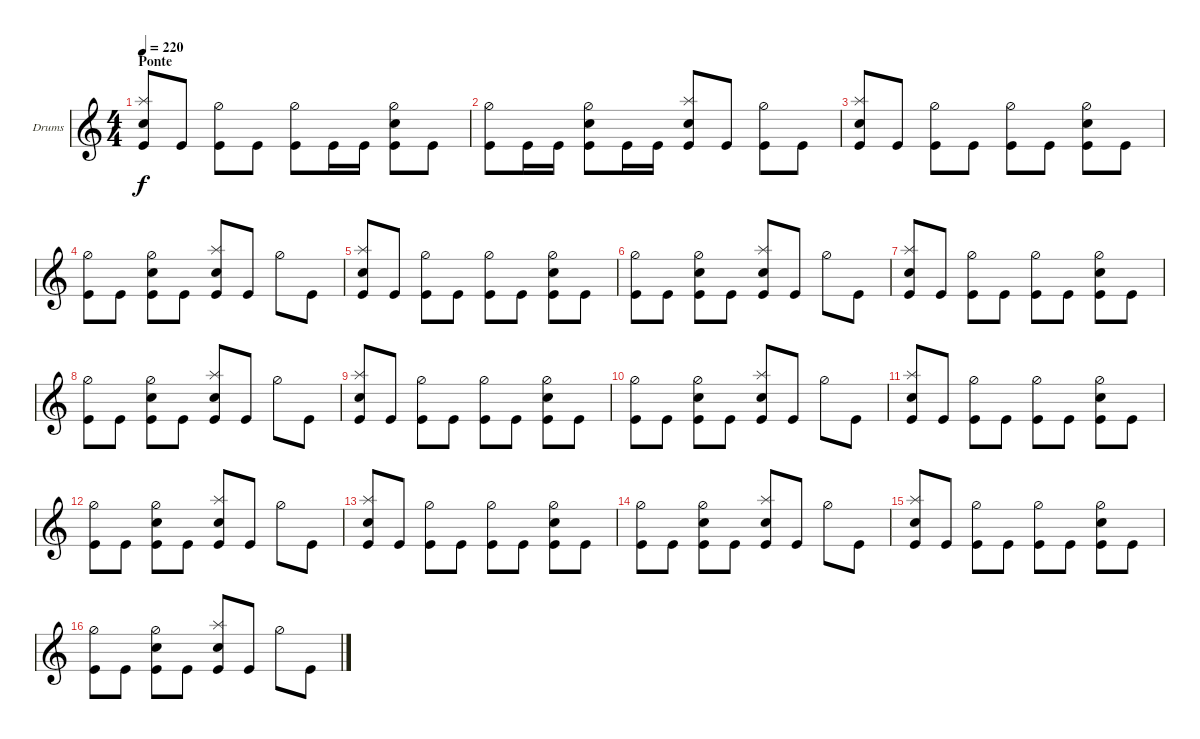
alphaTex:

\defaultSystemsLayout 4
\bracketExtendMode groupsimilarinstruments
\firstSystemTrackNameOrientation horizontal
\otherSystemsTrackNameOrientation horizontal
\track ("Drumkit" "Drums") {instrument percussion}
\staff {score}
\articulation defaults
\ts (4 4)
\section ("" "Ponte")
\tempo 220
\clef g2
\ks c
("Snare (hit) 2" "Splash (hit)" "Kick (hit)").8{dy f} "Kick (hit)".8 ("Hi-Hat (half)" "Kick (hit)").8 "Kick (hit)".8 ("Hi-Hat (half)" "Kick (hit)").8 "Kick (hit)".16 "Kick (hit)".16 ("Snare (hit) 2" "Hi-Hat (half)" "Kick (hit)").8 "Kick (hit)".8 |
("Hi-Hat (half)" "Kick (hit)").8 "Kick (hit)".16 "Kick (hit)".16 ("Snare (hit) 2" "Hi-Hat (half)" "Kick (hit)").8 "Kick (hit)".16 "Kick (hit)".16 ("Snare (hit) 2" "Splash (hit)" "Kick (hit)").8 "Kick (hit)".8 ("Hi-Hat (half)" "Kick (hit)").8 "Kick (hit)".8 |
("Snare (hit) 2" "Splash (hit)" "Kick (hit)").8 "Kick (hit)".8 ("Hi-Hat (half)" "Kick (hit)").8 "Kick (hit)".8 ("Hi-Hat (half)" "Kick (hit)").8 "Kick (hit)".8 ("Snare (hit) 2" "Hi-Hat (half)" "Kick (hit)").8 "Kick (hit)".8 |
("Hi-Hat (half)" "Kick (hit)").8 "Kick (hit)".8 ("Snare (hit) 2" "Hi-Hat (half)" "Kick (hit)").8 "Kick (hit)".8 ("Snare (hit) 2" "Splash (hit)" "Kick (hit)").8 "Kick (hit)".8 "Hi-Hat (half)".8 "Kick (hit)".8 |
("Snare (hit) 2" "Splash (hit)" "Kick (hit)").8 "Kick (hit)".8 ("Hi-Hat (half)" "Kick (hit)").8 "Kick (hit)".8 ("Hi-Hat (half)" "Kick (hit)").8 "Kick (hit)".8 ("Snare (hit) 2" "Hi-Hat (half)" "Kick (hit)").8 "Kick (hit)".8 |
("Hi-Hat (half)" "Kick (hit)").8 "Kick (hit)".8 ("Snare (hit) 2" "Hi-Hat (half)" "Kick (hit)").8 "Kick (hit)".8 ("Snare (hit) 2" "Splash (hit)" "Kick (hit)").8 "Kick (hit)".8 "Hi-Hat (half)".8 "Kick (hit)".8 |
("Snare (hit) 2" "Splash (hit)" "Kick (hit)").8 "Kick (hit)".8 ("Hi-Hat (half)" "Kick (hit)").8 "Kick (hit)".8 ("Hi-Hat (half)" "Kick (hit)").8 "Kick (hit)".8 ("Snare (hit) 2" "Hi-Hat (half)" "Kick (hit)").8 "Kick (hit)".8 |
("Hi-Hat (half)" "Kick (hit)").8 "Kick (hit)".8 ("Snare (hit) 2" "Hi-Hat (half)" "Kick (hit)").8 "Kick (hit)".8 ("Snare (hit) 2" "Splash (hit)" "Kick (hit)").8 "Kick (hit)".8 "Hi-Hat (half)".8 "Kick (hit)".8 |
("Snare (hit) 2" "Splash (hit)" "Kick (hit)").8 "Kick (hit)".8 ("Hi-Hat (half)" "Kick (hit)").8 "Kick (hit)".8 ("Hi-Hat (half)" "Kick (hit)").8 "Kick (hit)".8 ("Snare (hit) 2" "Hi-Hat (half)" "Kick (hit)").8 "Kick (hit)".8 |
("Hi-Hat (half)" "Kick (hit)").8 "Kick (hit)".8 ("Snare (hit) 2" "Hi-Hat (half)" "Kick (hit)").8 "Kick (hit)".8 ("Snare (hit) 2" "Splash (hit)" "Kick (hit)").8 "Kick (hit)".8 "Hi-Hat (half)".8 "Kick (hit)".8 |
("Snare (hit) 2" "Splash (hit)" "Kick (hit)").8 "Kick (hit)".8 ("Hi-Hat (half)" "Kick (hit)").8 "Kick (hit)".8 ("Hi-Hat (half)" "Kick (hit)").8 "Kick (hit)".8 ("Snare (hit) 2" "Hi-Hat (half)" "Kick (hit)").8 "Kick (hit)".8 |
("Hi-Hat (half)" "Kick (hit)").8 "Kick (hit)".8 ("Snare (hit) 2" "Hi-Hat (half)" "Kick (hit)").8 "Kick (hit)".8 ("Snare (hit) 2" "Splash (hit)" "Kick (hit)").8 "Kick (hit)".8 "Hi-Hat (half)".8 "Kick (hit)".8 |
("Snare (hit) 2" "Splash (hit)" "Kick (hit)").8 "Kick (hit)".8 ("Hi-Hat (half)" "Kick (hit)").8 "Kick (hit)".8 ("Hi-Hat (half)" "Kick (hit)").8 "Kick (hit)".8 ("Snare (hit) 2" "Hi-Hat (half)" "Kick (hit)").8 "Kick (hit)".8 |
("Hi-Hat (half)" "Kick (hit)").8 "Kick (hit)".8 ("Snare (hit) 2" "Hi-Hat (half)" "Kick (hit)").8 "Kick (hit)".8 ("Snare (hit) 2" "Splash (hit)" "Kick (hit)").8 "Kick (hit)".8 "Hi-Hat (half)".8 "Kick (hit)".8 |
("Snare (hit) 2" "Splash (hit)" "Kick (hit)").8 "Kick (hit)".8 ("Hi-Hat (half)" "Kick (hit)").8 "Kick (hit)".8 ("Hi-Hat (half)" "Kick (hit)").8 "Kick (hit)".8 ("Snare (hit) 2" "Hi-Hat (half)" "Kick (hit)").8 "Kick (hit)".8 |
("Hi-Hat (half)" "Kick (hit)").8 "Kick (hit)".8 ("Snare (hit) 2" "Hi-Hat (half)" "Kick (hit)").8 "Kick (hit)".8 ("Snare (hit) 2" "Splash (hit)" "Kick (hit)").8 "Kick (hit)".8 "Hi-Hat (half)".8 "Kick (hit)".8
